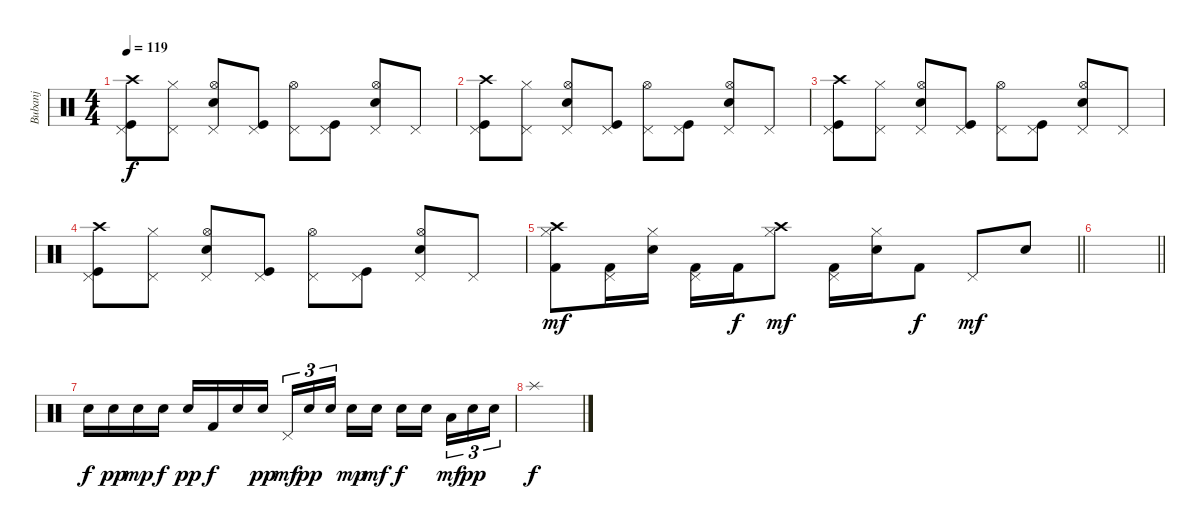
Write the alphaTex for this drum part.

\track ("Bubanj" "Bubanj") {instrument percussion}
\staff {score}
\articulation defaults
\ts (4 4)
\tempo 119
\clef neutral
\ks c
("Pedal Hi-Hat (hit)" "Crash high (hit)" "Kick (hit)").8{dy f} ("Pedal Hi-Hat (hit)" "Hi-Hat (closed)").8 ("Pedal Hi-Hat (hit)" "Hi-Hat (open)" "Electric Snare (hit)").8 ("Pedal Hi-Hat (hit)" "Kick (hit)").8 ("Pedal Hi-Hat (hit)" "Hi-Hat (open)").8 ("Pedal Hi-Hat (hit)" "Kick (hit)").8 ("Pedal Hi-Hat (hit)" "Hi-Hat (open)" "Electric Snare (hit)").8 "Pedal Hi-Hat (hit)".8 |
("Pedal Hi-Hat (hit)" "Crash high (hit)" "Kick (hit)").8 ("Pedal Hi-Hat (hit)" "Hi-Hat (closed)").8 ("Pedal Hi-Hat (hit)" "Hi-Hat (open)" "Electric Snare (hit)").8 ("Pedal Hi-Hat (hit)" "Kick (hit)").8 ("Pedal Hi-Hat (hit)" "Hi-Hat (open)").8 ("Pedal Hi-Hat (hit)" "Kick (hit)").8 ("Pedal Hi-Hat (hit)" "Hi-Hat (open)" "Electric Snare (hit)").8 "Pedal Hi-Hat (hit)".8 |
("Pedal Hi-Hat (hit)" "Crash high (hit)" "Kick (hit)").8 ("Pedal Hi-Hat (hit)" "Hi-Hat (closed)").8 ("Pedal Hi-Hat (hit)" "Hi-Hat (open)" "Electric Snare (hit)").8 ("Pedal Hi-Hat (hit)" "Kick (hit)").8 ("Pedal Hi-Hat (hit)" "Hi-Hat (open)").8 ("Pedal Hi-Hat (hit)" "Kick (hit)").8 ("Pedal Hi-Hat (hit)" "Hi-Hat (open)" "Electric Snare (hit)").8 "Pedal Hi-Hat (hit)".8 |
("Pedal Hi-Hat (hit)" "Crash high (hit)" "Kick (hit)").8 ("Pedal Hi-Hat (hit)" "Hi-Hat (closed)").8 ("Pedal Hi-Hat (hit)" "Hi-Hat (open)" "Electric Snare (hit)").8 ("Pedal Hi-Hat (hit)" "Kick (hit)").8 ("Pedal Hi-Hat (hit)" "Hi-Hat (open)").8 ("Pedal Hi-Hat (hit)" "Kick (hit)").8 ("Pedal Hi-Hat (hit)" "Hi-Hat (open)" "Electric Snare (hit)").8 "Pedal Hi-Hat (hit)".8 |
\barLineRight lightlight
("Hi-Hat (closed)" "Kick (hit) 2" "Crash high (hit)").8{dy mf} ("Kick (hit) 2" "Pedal Hi-Hat (hit)").16 ("Hi-Hat (closed)" "Electric Snare (hit)").16 ("Pedal Hi-Hat (hit)" "Kick (hit) 2").16 "Kick (hit) 2".16{dy f} ("Hi-Hat (closed)" "Crash high (hit)").8{dy mf} ("Pedal Hi-Hat (hit)" "Kick (hit) 2").16 ("Hi-Hat (closed)" "Electric Snare (hit)").16 "Kick (hit) 2".8{dy f} "Pedal Hi-Hat (hit)".8{dy mf} "Electric Snare (hit)".8 |
\barLineRight lightlight
|
"Electric Snare (hit)".16{dy f} "Electric Snare (hit)".16{dy pp} "Electric Snare (hit)".16{dy mp} "Electric Snare (hit)".16{dy f} "Electric Snare (hit)".16{dy pp} "Kick (hit) 2".16{dy f} "Electric Snare (hit)".16 "Electric Snare (hit)".16{dy pp} "Pedal Hi-Hat (hit)".16{tu (3 2) dy mf} "Electric Snare (hit)".16{tu (3 2) dy pp} "Electric Snare (hit)".16{tu (3 2)} "Electric Snare (hit)".16{dy mp} "Electric Snare (hit)".16{dy mf} "Electric Snare (hit)".16{dy f} "Electric Snare (hit)".16 "Low Floor Tom (hit)".16{tu (3 2) dy mf} "Electric Snare (hit)".16{tu (3 2) dy pp} "Electric Snare (hit)".16{tu (3 2)} |
"Splash (hit)".1{dy f}
